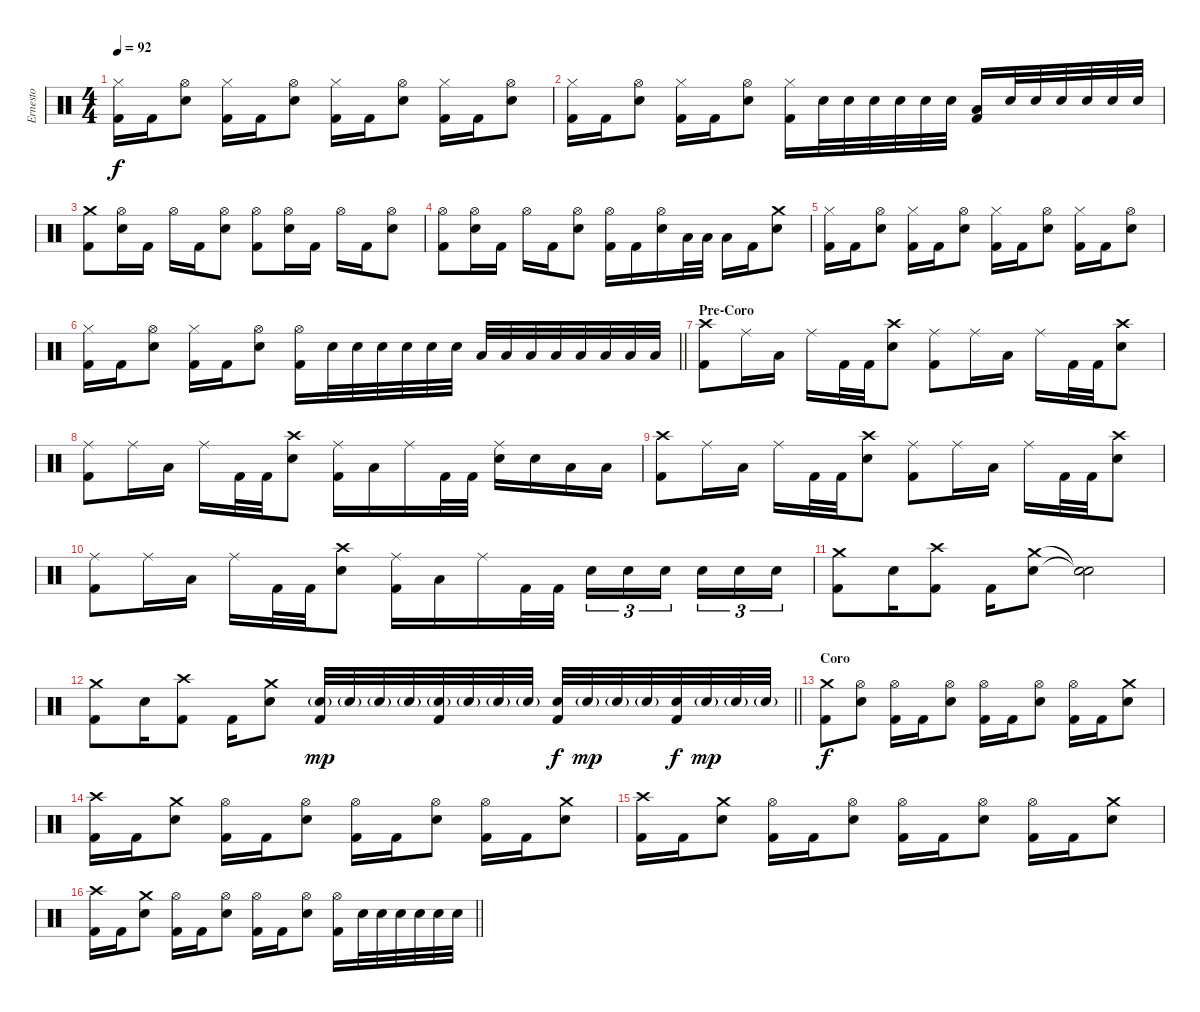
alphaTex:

\track ("Ernesto" "Ernesto") {instrument percussion}
\staff
\articulation defaults
\ts (4 4)
\tempo 92
\clef neutral
\ks c
("Hi-Hat (closed)" "Kick (hit) 2").16{dy f} "Kick (hit) 2".16 ("Hi-Hat (open)" "Electric Snare (hit)").8 ("Hi-Hat (closed)" "Kick (hit) 2").16 "Kick (hit) 2".16 ("Hi-Hat (open)" "Electric Snare (hit)").8 ("Hi-Hat (closed)" "Kick (hit) 2").16 "Kick (hit) 2".16 ("Hi-Hat (open)" "Electric Snare (hit)").8 ("Hi-Hat (closed)" "Kick (hit) 2").16 "Kick (hit) 2".16 ("Hi-Hat (open)" "Electric Snare (hit)").8 |
("Hi-Hat (closed)" "Kick (hit) 2").16 "Kick (hit) 2".16 ("Hi-Hat (open)" "Electric Snare (hit)").8 ("Hi-Hat (closed)" "Kick (hit) 2").16 "Kick (hit) 2".16 ("Hi-Hat (open)" "Electric Snare (hit)").8 ("Hi-Hat (closed)" "Kick (hit) 2").16 "Electric Snare (hit)".32 "Electric Snare (hit)".32 "Electric Snare (hit)".32 "Electric Snare (hit)".32 "Electric Snare (hit)".32 "Electric Snare (hit)".32 ("Low Tom (hit)" "Kick (hit) 2").16 "Electric Snare (hit)".32 "Electric Snare (hit)".32 "Electric Snare (hit)".32 "Electric Snare (hit)".32 "Electric Snare (hit)".32 "Electric Snare (hit)".32 |
("Crash medium (hit)" "Kick (hit) 2").8 ("Hi-Hat (open)" "Electric Snare (hit)").16 "Kick (hit) 2".16 "Hi-Hat (open)".16 "Kick (hit) 2".16 ("Hi-Hat (open)" "Electric Snare (hit)").8 ("Hi-Hat (open)" "Kick (hit) 2").8 ("Hi-Hat (open)" "Electric Snare (hit)").16 "Kick (hit) 2".16 "Hi-Hat (open)".16 "Kick (hit) 2".16 ("Hi-Hat (open)" "Electric Snare (hit)").8 |
("Hi-Hat (open)" "Kick (hit) 2").8 ("Hi-Hat (open)" "Electric Snare (hit)").16 "Kick (hit) 2".16 "Hi-Hat (open)".16 "Kick (hit) 2".16 ("Hi-Hat (open)" "Electric Snare (hit)").8 ("Hi-Hat (open)" "Kick (hit) 2").16 "Kick (hit) 2".16 ("Hi-Hat (open)" "Electric Snare (hit)").16 "Low Tom (hit)".32 "Low Tom (hit)".32 "Low Floor Tom (hit)".16 "Kick (hit) 2".16 ("Crash medium (hit)" "Electric Snare (hit)").8 |
("Hi-Hat (closed)" "Kick (hit) 2").16 "Kick (hit) 2".16 ("Hi-Hat (open)" "Electric Snare (hit)").8 ("Hi-Hat (closed)" "Kick (hit) 2").16 "Kick (hit) 2".16 ("Hi-Hat (open)" "Electric Snare (hit)").8 ("Hi-Hat (closed)" "Kick (hit) 2").16 "Kick (hit) 2".16 ("Hi-Hat (open)" "Electric Snare (hit)").8 ("Hi-Hat (closed)" "Kick (hit) 2").16 "Kick (hit) 2".16 ("Hi-Hat (open)" "Electric Snare (hit)").8 |
\barLineRight lightlight
("Hi-Hat (closed)" "Kick (hit) 2").16 "Kick (hit) 2".16 ("Hi-Hat (open)" "Electric Snare (hit)").8 ("Hi-Hat (closed)" "Kick (hit) 2").16 "Kick (hit) 2".16 ("Hi-Hat (open)" "Electric Snare (hit)").8 ("Hi-Hat (open)" "Kick (hit) 2").16 "Electric Snare (hit)".32 "Electric Snare (hit)".32 "Electric Snare (hit)".32 "Electric Snare (hit)".32 "Electric Snare (hit)".32 "Electric Snare (hit)".32 "Low Tom (hit)".32 "Low Tom (hit)".32 "Low Tom (hit)".32 "Low Tom (hit)".32 "Low Floor Tom (hit)".32 "Low Floor Tom (hit)".32 "Low Floor Tom (hit)".32 "Low Floor Tom (hit)".32 |
\section ("" "Pre-Coro")
("Crash high (hit)" "Kick (hit) 2").8 "Ride (middle)".16 "Low Tom (hit)".16 "Ride (middle)".16 "Kick (hit) 2".32 "Kick (hit) 2".32 ("Crash high (hit)" "Electric Snare (hit)").8 ("Ride (middle)" "Kick (hit) 2").8 "Ride (middle)".16 "Low Tom (hit)".16 "Ride (middle)".16 "Kick (hit) 2".32 "Kick (hit) 2".32 ("Crash high (hit)" "Electric Snare (hit)").8 |
("Ride (middle)" "Kick (hit) 2").8 "Ride (middle)".16 "Low Tom (hit)".16 "Ride (middle)".16 "Kick (hit) 2".32 "Kick (hit) 2".32 ("Crash high (hit)" "Electric Snare (hit)").8 ("Ride (middle)" "Kick (hit) 2").16 "Low Tom (hit)".16 "Ride (middle)".16 "Kick (hit) 2".32 "Kick (hit) 2".32 ("Ride (middle)" "Electric Snare (hit)").16 "Electric Snare (hit)".16 "Low Tom (hit)".16 "Low Floor Tom (hit)".16 |
("Crash high (hit)" "Kick (hit) 2").8 "Ride (middle)".16 "Low Tom (hit)".16 "Ride (middle)".16 "Kick (hit) 2".32 "Kick (hit) 2".32 ("Crash high (hit)" "Electric Snare (hit)").8 ("Ride (middle)" "Kick (hit) 2").8 "Ride (middle)".16 "Low Tom (hit)".16 "Ride (middle)".16 "Kick (hit) 2".32 "Kick (hit) 2".32 ("Crash high (hit)" "Electric Snare (hit)").8 |
("Ride (middle)" "Kick (hit) 2").8 "Ride (middle)".16 "Low Tom (hit)".16 "Ride (middle)".16 "Kick (hit) 2".32 "Kick (hit) 2".32 ("Crash high (hit)" "Electric Snare (hit)").8 ("Ride (middle)" "Kick (hit) 2").16 "Low Tom (hit)".16 "Ride (middle)".16 "Kick (hit) 2".32 "Kick (hit) 2".32 "Electric Snare (hit)".16{tu (3 2)} "Electric Snare (hit)".16{tu (3 2)} "Electric Snare (hit)".16{tu (3 2) beam splitsecondary} "Electric Snare (hit)".16{tu (3 2)} "Electric Snare (hit)".16{tu (3 2)} "Electric Snare (hit)".16{tu (3 2)} |
("Crash medium (hit)" "Kick (hit) 2").8 "Electric Snare (hit)".16 ("Crash high (hit)" "Kick (hit) 2").8 "Kick (hit) 2".16 ("Crash medium (hit)" "Electric Snare (hit)").8 ("Snare (hit)"{t} "Snare (hit)"{t}).2 |
\barLineRight lightlight
("Crash medium (hit)" "Kick (hit) 2").8 "Electric Snare (hit)".16 ("Crash high (hit)" "Kick (hit) 2").8 "Kick (hit) 2".16 ("Crash medium (hit)" "Electric Snare (hit)").8 ("Electric Snare (hit)"{g} "Kick (hit) 2").32{dy mp} "Electric Snare (hit)"{g}.32 "Electric Snare (hit)"{g}.32 "Electric Snare (hit)"{g}.32 ("Electric Snare (hit)"{g} "Kick (hit) 2").32 "Electric Snare (hit)"{g}.32 "Electric Snare (hit)"{g}.32 "Electric Snare (hit)"{g}.32 ("Electric Snare (hit)" "Kick (hit) 2").32{dy f} "Electric Snare (hit)"{g}.32{dy mp} "Electric Snare (hit)"{g}.32 "Electric Snare (hit)"{g}.32 ("Electric Snare (hit)" "Kick (hit) 2").32{dy f} "Electric Snare (hit)"{g}.32{dy mp} "Electric Snare (hit)"{g}.32 "Electric Snare (hit)"{g}.32 |
\section ("" "Coro")
("Crash medium (hit)" "Kick (hit) 2").8{dy f} ("Hi-Hat (open)" "Electric Snare (hit)").8 ("Hi-Hat (open)" "Kick (hit) 2").16 "Kick (hit) 2".16 ("Hi-Hat (open)" "Electric Snare (hit)").8 ("Hi-Hat (open)" "Kick (hit) 2").16 "Kick (hit) 2".16 ("Hi-Hat (open)" "Electric Snare (hit)").8 ("Hi-Hat (open)" "Kick (hit) 2").16 "Kick (hit) 2".16 ("Crash medium (hit)" "Electric Snare (hit)").8 |
("Crash high (hit)" "Kick (hit) 2").16 "Kick (hit) 2".16 ("Crash medium (hit)" "Electric Snare (hit)").8 ("Hi-Hat (open)" "Kick (hit) 2").16 "Kick (hit) 2".16 ("Hi-Hat (open)" "Electric Snare (hit)").8 ("Hi-Hat (open)" "Kick (hit) 2").16 "Kick (hit) 2".16 ("Hi-Hat (open)" "Electric Snare (hit)").8 ("Hi-Hat (open)" "Kick (hit) 2").16 "Kick (hit) 2".16 ("Crash medium (hit)" "Electric Snare (hit)").8 |
("Crash high (hit)" "Kick (hit) 2").16 "Kick (hit) 2".16 ("Crash medium (hit)" "Electric Snare (hit)").8 ("Hi-Hat (open)" "Kick (hit) 2").16 "Kick (hit) 2".16 ("Hi-Hat (open)" "Electric Snare (hit)").8 ("Hi-Hat (open)" "Kick (hit) 2").16 "Kick (hit) 2".16 ("Hi-Hat (open)" "Electric Snare (hit)").8 ("Hi-Hat (open)" "Kick (hit) 2").16 "Kick (hit) 2".16 ("Crash medium (hit)" "Electric Snare (hit)").8 |
\barLineRight lightlight
("Crash high (hit)" "Kick (hit) 2").16 "Kick (hit) 2".16 ("Crash medium (hit)" "Electric Snare (hit)").8 ("Hi-Hat (open)" "Kick (hit) 2").16 "Kick (hit) 2".16 ("Hi-Hat (open)" "Electric Snare (hit)").8 ("Hi-Hat (open)" "Kick (hit) 2").16 "Kick (hit) 2".16 ("Hi-Hat (open)" "Electric Snare (hit)").8 ("Hi-Hat (open)" "Kick (hit) 2").16 "Electric Snare (hit)".32 "Electric Snare (hit)".32 "Electric Snare (hit)".32 "Electric Snare (hit)".32 "Electric Snare (hit)".32 "Electric Snare (hit)".32
